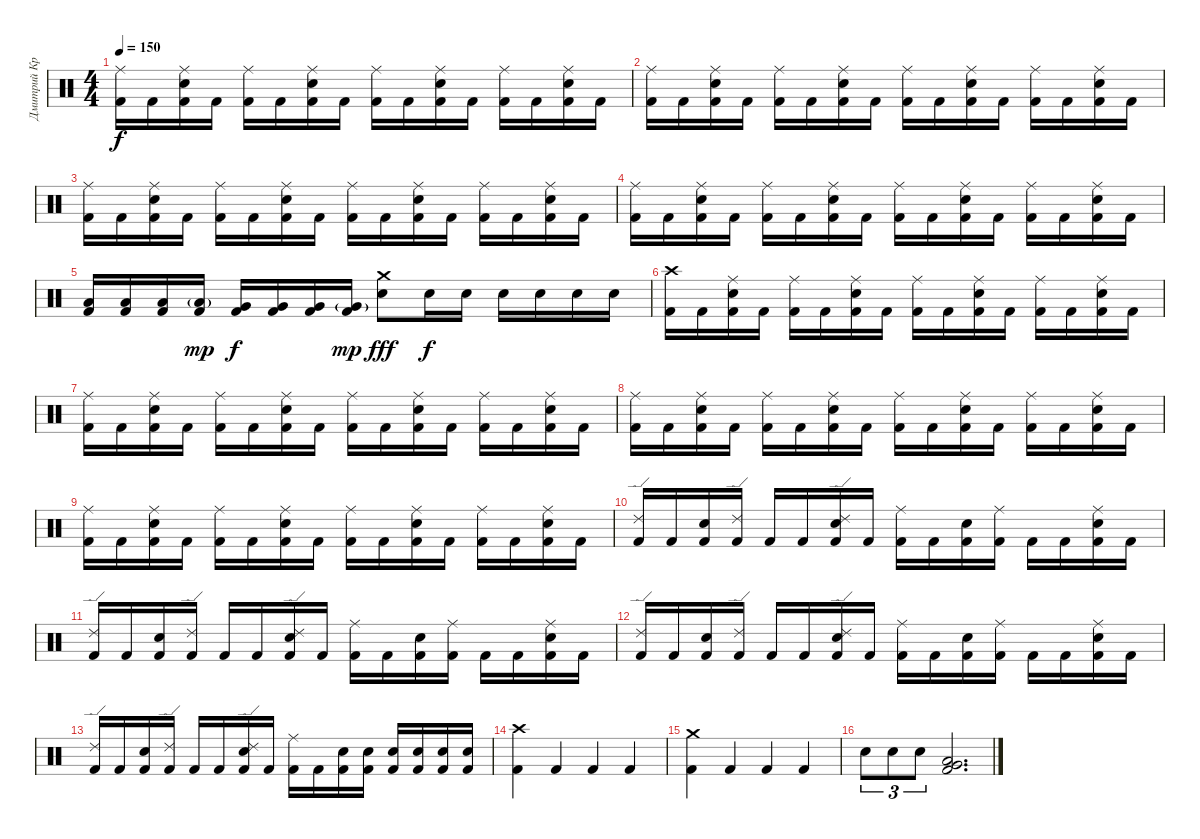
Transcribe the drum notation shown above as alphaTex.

\track ("Дмитрий Кривенков" "Дмитрий Кр") {instrument percussion}
\staff {score}
\articulation defaults
\ts (4 4)
\tempo 150
\clef neutral
\ks c
("Ride (middle)" "Kick (hit) 2").16{dy f} "Kick (hit) 2".16 ("Ride (middle)" "Electric Snare (hit)" "Kick (hit) 2").16 "Kick (hit) 2".16 ("Ride (middle)" "Kick (hit) 2").16 "Kick (hit) 2".16 ("Ride (middle)" "Electric Snare (hit)" "Kick (hit) 2").16 "Kick (hit) 2".16 ("Ride (middle)" "Kick (hit) 2").16 "Kick (hit) 2".16 ("Ride (middle)" "Electric Snare (hit)" "Kick (hit) 2").16 "Kick (hit) 2".16 ("Ride (middle)" "Kick (hit) 2").16 "Kick (hit) 2".16 ("Ride (middle)" "Electric Snare (hit)" "Kick (hit) 2").16 "Kick (hit) 2".16 |
("Ride (middle)" "Kick (hit) 2").16 "Kick (hit) 2".16 ("Ride (middle)" "Electric Snare (hit)" "Kick (hit) 2").16 "Kick (hit) 2".16 ("Ride (middle)" "Kick (hit) 2").16 "Kick (hit) 2".16 ("Ride (middle)" "Electric Snare (hit)" "Kick (hit) 2").16 "Kick (hit) 2".16 ("Ride (middle)" "Kick (hit) 2").16 "Kick (hit) 2".16 ("Ride (middle)" "Electric Snare (hit)" "Kick (hit) 2").16 "Kick (hit) 2".16 ("Ride (middle)" "Kick (hit) 2").16 "Kick (hit) 2".16 ("Ride (middle)" "Electric Snare (hit)" "Kick (hit) 2").16 "Kick (hit) 2".16 |
("Ride (middle)" "Kick (hit) 2").16 "Kick (hit) 2".16 ("Ride (middle)" "Electric Snare (hit)" "Kick (hit) 2").16 "Kick (hit) 2".16 ("Ride (middle)" "Kick (hit) 2").16 "Kick (hit) 2".16 ("Ride (middle)" "Electric Snare (hit)" "Kick (hit) 2").16 "Kick (hit) 2".16 ("Ride (middle)" "Kick (hit) 2").16 "Kick (hit) 2".16 ("Ride (middle)" "Electric Snare (hit)" "Kick (hit) 2").16 "Kick (hit) 2".16 ("Ride (middle)" "Kick (hit) 2").16 "Kick (hit) 2".16 ("Ride (middle)" "Electric Snare (hit)" "Kick (hit) 2").16 "Kick (hit) 2".16 |
("Ride (middle)" "Kick (hit) 2").16 "Kick (hit) 2".16 ("Ride (middle)" "Electric Snare (hit)" "Kick (hit) 2").16 "Kick (hit) 2".16 ("Ride (middle)" "Kick (hit) 2").16 "Kick (hit) 2".16 ("Ride (middle)" "Electric Snare (hit)" "Kick (hit) 2").16 "Kick (hit) 2".16 ("Ride (middle)" "Kick (hit) 2").16 "Kick (hit) 2".16 ("Ride (middle)" "Electric Snare (hit)" "Kick (hit) 2").16 "Kick (hit) 2".16 ("Ride (middle)" "Kick (hit) 2").16 "Kick (hit) 2".16 ("Ride (middle)" "Electric Snare (hit)" "Kick (hit) 2").16 "Kick (hit) 2".16 |
("Low Tom (hit)" "Kick (hit) 2").16 ("Low Tom (hit)" "Kick (hit) 2").16 ("Low Tom (hit)" "Kick (hit) 2").16 ("Low Tom (hit)"{g} "Kick (hit) 2").16{dy mp} ("Very Low Tom (hit)" "Kick (hit) 2").16{dy f} ("Very Low Tom (hit)" "Kick (hit) 2").16 ("Very Low Tom (hit)" "Kick (hit) 2").16 ("Very Low Tom (hit)"{g} "Kick (hit) 2").16{dy mp} ("Crash medium (hit)" "Electric Snare (hit)").8{dy fff} "Electric Snare (hit)".16{dy f} "Electric Snare (hit)".16 "Electric Snare (hit)".16 "Electric Snare (hit)".16 "Electric Snare (hit)".16 "Electric Snare (hit)".16 |
("Crash high (hit)" "Kick (hit) 2").16 "Kick (hit) 2".16 ("Ride (middle)" "Electric Snare (hit)" "Kick (hit) 2").16 "Kick (hit) 2".16 ("Ride (middle)" "Kick (hit) 2").16 "Kick (hit) 2".16 ("Ride (middle)" "Electric Snare (hit)" "Kick (hit) 2").16 "Kick (hit) 2".16 ("Ride (middle)" "Kick (hit) 2").16 "Kick (hit) 2".16 ("Ride (middle)" "Electric Snare (hit)" "Kick (hit) 2").16 "Kick (hit) 2".16 ("Ride (middle)" "Kick (hit) 2").16 "Kick (hit) 2".16 ("Ride (middle)" "Electric Snare (hit)" "Kick (hit) 2").16 "Kick (hit) 2".16 |
("Ride (middle)" "Kick (hit) 2").16 "Kick (hit) 2".16 ("Ride (middle)" "Electric Snare (hit)" "Kick (hit) 2").16 "Kick (hit) 2".16 ("Ride (middle)" "Kick (hit) 2").16 "Kick (hit) 2".16 ("Ride (middle)" "Electric Snare (hit)" "Kick (hit) 2").16 "Kick (hit) 2".16 ("Ride (middle)" "Kick (hit) 2").16 "Kick (hit) 2".16 ("Ride (middle)" "Electric Snare (hit)" "Kick (hit) 2").16 "Kick (hit) 2".16 ("Ride (middle)" "Kick (hit) 2").16 "Kick (hit) 2".16 ("Ride (middle)" "Electric Snare (hit)" "Kick (hit) 2").16 "Kick (hit) 2".16 |
("Ride (middle)" "Kick (hit) 2").16 "Kick (hit) 2".16 ("Ride (middle)" "Electric Snare (hit)" "Kick (hit) 2").16 "Kick (hit) 2".16 ("Ride (middle)" "Kick (hit) 2").16 "Kick (hit) 2".16 ("Ride (middle)" "Electric Snare (hit)" "Kick (hit) 2").16 "Kick (hit) 2".16 ("Ride (middle)" "Kick (hit) 2").16 "Kick (hit) 2".16 ("Ride (middle)" "Electric Snare (hit)" "Kick (hit) 2").16 "Kick (hit) 2".16 ("Ride (middle)" "Kick (hit) 2").16 "Kick (hit) 2".16 ("Ride (middle)" "Electric Snare (hit)" "Kick (hit) 2").16 "Kick (hit) 2".16 |
("Ride (middle)" "Kick (hit) 2").16 "Kick (hit) 2".16 ("Ride (middle)" "Electric Snare (hit)" "Kick (hit) 2").16 "Kick (hit) 2".16 ("Ride (middle)" "Kick (hit) 2").16 "Kick (hit) 2".16 ("Ride (middle)" "Electric Snare (hit)" "Kick (hit) 2").16 "Kick (hit) 2".16 ("Ride (middle)" "Kick (hit) 2").16 "Kick (hit) 2".16 ("Ride (middle)" "Electric Snare (hit)" "Kick (hit) 2").16 "Kick (hit) 2".16 ("Ride (middle)" "Kick (hit) 2").16 "Kick (hit) 2".16 ("Ride (middle)" "Electric Snare (hit)" "Kick (hit) 2").16 "Kick (hit) 2".16 |
("Ride (edge) 2" "Kick (hit) 2").16 "Kick (hit) 2".16 ("Electric Snare (hit)" "Kick (hit) 2").16 ("Ride (edge) 2" "Kick (hit) 2").16 "Kick (hit) 2".16 "Kick (hit) 2".16 ("Ride (edge) 2" "Electric Snare (hit)" "Kick (hit) 2").16 "Kick (hit) 2".16 ("Ride (middle)" "Kick (hit) 2").16 "Kick (hit) 2".16 ("Electric Snare (hit)" "Kick (hit) 2").16 ("Ride (middle)" "Kick (hit) 2").16 "Kick (hit) 2".16 "Kick (hit) 2".16 ("Ride (middle)" "Electric Snare (hit)" "Kick (hit) 2").16 "Kick (hit) 2".16 |
("Ride (edge) 2" "Kick (hit) 2").16 "Kick (hit) 2".16 ("Electric Snare (hit)" "Kick (hit) 2").16 ("Ride (edge) 2" "Kick (hit) 2").16 "Kick (hit) 2".16 "Kick (hit) 2".16 ("Ride (edge) 2" "Electric Snare (hit)" "Kick (hit) 2").16 "Kick (hit) 2".16 ("Ride (middle)" "Kick (hit) 2").16 "Kick (hit) 2".16 ("Electric Snare (hit)" "Kick (hit) 2").16 ("Ride (middle)" "Kick (hit) 2").16 "Kick (hit) 2".16 "Kick (hit) 2".16 ("Ride (middle)" "Electric Snare (hit)" "Kick (hit) 2").16 "Kick (hit) 2".16 |
("Ride (edge) 2" "Kick (hit) 2").16 "Kick (hit) 2".16 ("Electric Snare (hit)" "Kick (hit) 2").16 ("Ride (edge) 2" "Kick (hit) 2").16 "Kick (hit) 2".16 "Kick (hit) 2".16 ("Ride (edge) 2" "Electric Snare (hit)" "Kick (hit) 2").16 "Kick (hit) 2".16 ("Ride (middle)" "Kick (hit) 2").16 "Kick (hit) 2".16 ("Electric Snare (hit)" "Kick (hit) 2").16 ("Ride (middle)" "Kick (hit) 2").16 "Kick (hit) 2".16 "Kick (hit) 2".16 ("Ride (middle)" "Electric Snare (hit)" "Kick (hit) 2").16 "Kick (hit) 2".16 |
("Ride (edge) 2" "Kick (hit) 2").16 "Kick (hit) 2".16 ("Electric Snare (hit)" "Kick (hit) 2").16 ("Ride (edge) 2" "Kick (hit) 2").16 "Kick (hit) 2".16 "Kick (hit) 2".16 ("Ride (edge) 2" "Electric Snare (hit)" "Kick (hit) 2").16 "Kick (hit) 2".16 ("Ride (middle)" "Kick (hit) 2").16 "Kick (hit) 2".16 ("Electric Snare (hit)" "Kick (hit) 2").16 ("Electric Snare (hit)" "Kick (hit) 2").16 ("Electric Snare (hit)" "Kick (hit) 2").16 ("Electric Snare (hit)" "Kick (hit) 2").16 ("Electric Snare (hit)" "Kick (hit) 2").16 ("Electric Snare (hit)" "Kick (hit) 2").16 |
("Crash high (hit)" "Kick (hit) 2").4 "Kick (hit) 2".4 "Kick (hit) 2".4 "Kick (hit) 2".4 |
("Crash medium (hit)" "Kick (hit) 2").4 "Kick (hit) 2".4 "Kick (hit) 2".4 "Kick (hit) 2".4 |
"Electric Snare (hit)".8{tu (3 2)} "Electric Snare (hit)".8{tu (3 2)} "Electric Snare (hit)".8{tu (3 2)} ("Very Low Tom (hit)" "Low Floor Tom (hit)" "Kick (hit) 2").2{d}
